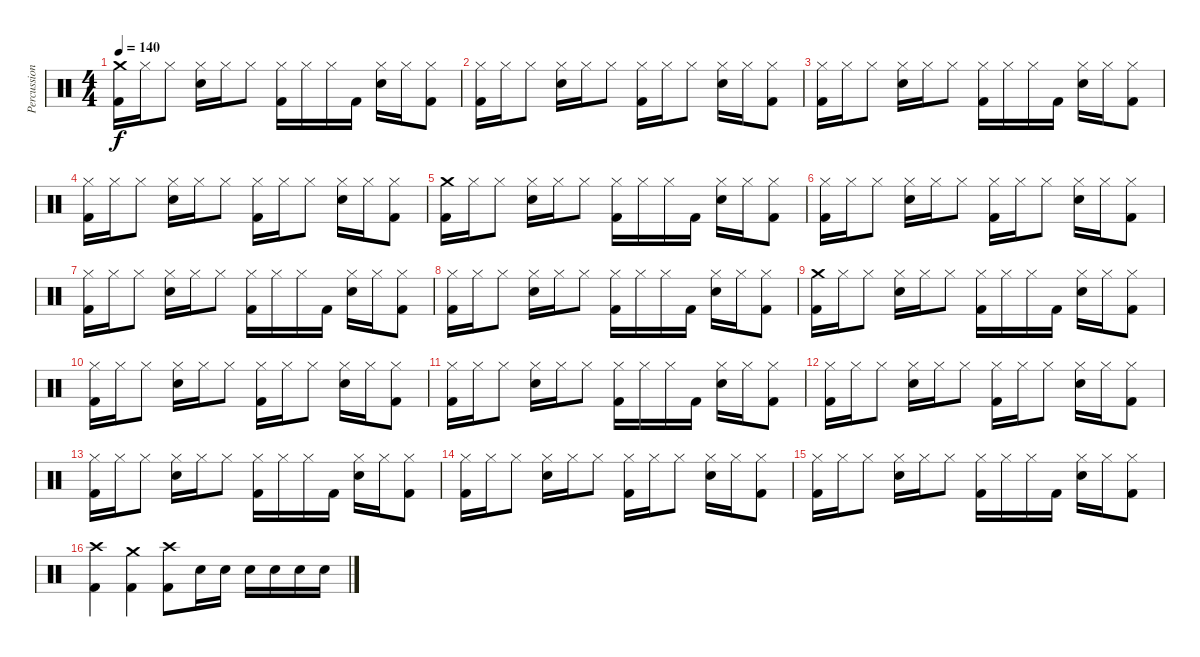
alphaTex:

\track ("Percussion" "Percussion") {instrument percussion}
\staff {score}
\articulation defaults
\ts (4 4)
\tempo 140
\clef neutral
\ks c
("Crash medium (hit)" "Kick (hit) 2").16{dy f} "Hi-Hat (closed)".16 "Hi-Hat (closed)".8 ("Hi-Hat (closed)" "Electric Snare (hit)").16 "Hi-Hat (closed)".16 "Hi-Hat (closed)".8 ("Hi-Hat (closed)" "Kick (hit) 2").16 "Hi-Hat (closed)".16 "Hi-Hat (closed)".16 "Kick (hit) 2".16 ("Hi-Hat (closed)" "Electric Snare (hit)").16 "Hi-Hat (closed)".16 ("Hi-Hat (closed)" "Kick (hit) 2").8 |
("Hi-Hat (closed)" "Kick (hit) 2").16 "Hi-Hat (closed)".16 "Hi-Hat (closed)".8 ("Hi-Hat (closed)" "Electric Snare (hit)").16 "Hi-Hat (closed)".16 "Hi-Hat (closed)".8 ("Hi-Hat (closed)" "Kick (hit) 2").16 "Hi-Hat (closed)".16 "Hi-Hat (closed)".8 ("Hi-Hat (closed)" "Electric Snare (hit)").16 "Hi-Hat (closed)".16 ("Hi-Hat (closed)" "Kick (hit) 2").8 |
("Hi-Hat (closed)" "Kick (hit) 2").16 "Hi-Hat (closed)".16 "Hi-Hat (closed)".8 ("Hi-Hat (closed)" "Electric Snare (hit)").16 "Hi-Hat (closed)".16 "Hi-Hat (closed)".8 ("Hi-Hat (closed)" "Kick (hit) 2").16 "Hi-Hat (closed)".16 "Hi-Hat (closed)".16 "Kick (hit) 2".16 ("Hi-Hat (closed)" "Electric Snare (hit)").16 "Hi-Hat (closed)".16 ("Hi-Hat (closed)" "Kick (hit) 2").8 |
("Hi-Hat (closed)" "Kick (hit) 2").16 "Hi-Hat (closed)".16 "Hi-Hat (closed)".8 ("Hi-Hat (closed)" "Electric Snare (hit)").16 "Hi-Hat (closed)".16 "Hi-Hat (closed)".8 ("Hi-Hat (closed)" "Kick (hit) 2").16 "Hi-Hat (closed)".16 "Hi-Hat (closed)".8 ("Hi-Hat (closed)" "Electric Snare (hit)").16 "Hi-Hat (closed)".16 ("Hi-Hat (closed)" "Kick (hit) 2").8 |
("Crash medium (hit)" "Kick (hit) 2").16 "Hi-Hat (closed)".16 "Hi-Hat (closed)".8 ("Hi-Hat (closed)" "Electric Snare (hit)").16 "Hi-Hat (closed)".16 "Hi-Hat (closed)".8 ("Hi-Hat (closed)" "Kick (hit) 2").16 "Hi-Hat (closed)".16 "Hi-Hat (closed)".16 "Kick (hit) 2".16 ("Hi-Hat (closed)" "Electric Snare (hit)").16 "Hi-Hat (closed)".16 ("Hi-Hat (closed)" "Kick (hit) 2").8 |
("Hi-Hat (closed)" "Kick (hit) 2").16 "Hi-Hat (closed)".16 "Hi-Hat (closed)".8 ("Hi-Hat (closed)" "Electric Snare (hit)").16 "Hi-Hat (closed)".16 "Hi-Hat (closed)".8 ("Hi-Hat (closed)" "Kick (hit) 2").16 "Hi-Hat (closed)".16 "Hi-Hat (closed)".8 ("Hi-Hat (closed)" "Electric Snare (hit)").16 "Hi-Hat (closed)".16 ("Hi-Hat (closed)" "Kick (hit) 2").8 |
("Hi-Hat (closed)" "Kick (hit) 2").16 "Hi-Hat (closed)".16 "Hi-Hat (closed)".8 ("Hi-Hat (closed)" "Electric Snare (hit)").16 "Hi-Hat (closed)".16 "Hi-Hat (closed)".8 ("Hi-Hat (closed)" "Kick (hit) 2").16 "Hi-Hat (closed)".16 "Hi-Hat (closed)".16 "Kick (hit) 2".16 ("Hi-Hat (closed)" "Electric Snare (hit)").16 "Hi-Hat (closed)".16 ("Hi-Hat (closed)" "Kick (hit) 2").8 |
("Hi-Hat (closed)" "Kick (hit) 2").16 "Hi-Hat (closed)".16 "Hi-Hat (closed)".8 ("Hi-Hat (closed)" "Electric Snare (hit)").16 "Hi-Hat (closed)".16 "Hi-Hat (closed)".8 ("Hi-Hat (closed)" "Kick (hit) 2").16 "Hi-Hat (closed)".16 "Hi-Hat (closed)".16 "Kick (hit) 2".16 ("Hi-Hat (closed)" "Electric Snare (hit)").16 "Hi-Hat (closed)".16 ("Hi-Hat (closed)" "Kick (hit) 2").8 |
("Crash medium (hit)" "Kick (hit) 2").16 "Hi-Hat (closed)".16 "Hi-Hat (closed)".8 ("Hi-Hat (closed)" "Electric Snare (hit)").16 "Hi-Hat (closed)".16 "Hi-Hat (closed)".8 ("Hi-Hat (closed)" "Kick (hit) 2").16 "Hi-Hat (closed)".16 "Hi-Hat (closed)".16 "Kick (hit) 2".16 ("Hi-Hat (closed)" "Electric Snare (hit)").16 "Hi-Hat (closed)".16 ("Hi-Hat (closed)" "Kick (hit) 2").8 |
("Hi-Hat (closed)" "Kick (hit) 2").16 "Hi-Hat (closed)".16 "Hi-Hat (closed)".8 ("Hi-Hat (closed)" "Electric Snare (hit)").16 "Hi-Hat (closed)".16 "Hi-Hat (closed)".8 ("Hi-Hat (closed)" "Kick (hit) 2").16 "Hi-Hat (closed)".16 "Hi-Hat (closed)".8 ("Hi-Hat (closed)" "Electric Snare (hit)").16 "Hi-Hat (closed)".16 ("Hi-Hat (closed)" "Kick (hit) 2").8 |
("Hi-Hat (closed)" "Kick (hit) 2").16 "Hi-Hat (closed)".16 "Hi-Hat (closed)".8 ("Hi-Hat (closed)" "Electric Snare (hit)").16 "Hi-Hat (closed)".16 "Hi-Hat (closed)".8 ("Hi-Hat (closed)" "Kick (hit) 2").16 "Hi-Hat (closed)".16 "Hi-Hat (closed)".16 "Kick (hit) 2".16 ("Hi-Hat (closed)" "Electric Snare (hit)").16 "Hi-Hat (closed)".16 ("Hi-Hat (closed)" "Kick (hit) 2").8 |
("Hi-Hat (closed)" "Kick (hit) 2").16 "Hi-Hat (closed)".16 "Hi-Hat (closed)".8 ("Hi-Hat (closed)" "Electric Snare (hit)").16 "Hi-Hat (closed)".16 "Hi-Hat (closed)".8 ("Hi-Hat (closed)" "Kick (hit) 2").16 "Hi-Hat (closed)".16 "Hi-Hat (closed)".8 ("Hi-Hat (closed)" "Electric Snare (hit)").16 "Hi-Hat (closed)".16 ("Hi-Hat (closed)" "Kick (hit) 2").8 |
("Hi-Hat (closed)" "Kick (hit) 2").16 "Hi-Hat (closed)".16 "Hi-Hat (closed)".8 ("Hi-Hat (closed)" "Electric Snare (hit)").16 "Hi-Hat (closed)".16 "Hi-Hat (closed)".8 ("Hi-Hat (closed)" "Kick (hit) 2").16 "Hi-Hat (closed)".16 "Hi-Hat (closed)".16 "Kick (hit) 2".16 ("Hi-Hat (closed)" "Electric Snare (hit)").16 "Hi-Hat (closed)".16 ("Hi-Hat (closed)" "Kick (hit) 2").8 |
("Hi-Hat (closed)" "Kick (hit) 2").16 "Hi-Hat (closed)".16 "Hi-Hat (closed)".8 ("Hi-Hat (closed)" "Electric Snare (hit)").16 "Hi-Hat (closed)".16 "Hi-Hat (closed)".8 ("Hi-Hat (closed)" "Kick (hit) 2").16 "Hi-Hat (closed)".16 "Hi-Hat (closed)".8 ("Hi-Hat (closed)" "Electric Snare (hit)").16 "Hi-Hat (closed)".16 ("Hi-Hat (closed)" "Kick (hit) 2").8 |
("Hi-Hat (closed)" "Kick (hit) 2").16 "Hi-Hat (closed)".16 "Hi-Hat (closed)".8 ("Hi-Hat (closed)" "Electric Snare (hit)").16 "Hi-Hat (closed)".16 "Hi-Hat (closed)".8 ("Hi-Hat (closed)" "Kick (hit) 2").16 "Hi-Hat (closed)".16 "Hi-Hat (closed)".16 "Kick (hit) 2".16 ("Hi-Hat (closed)" "Electric Snare (hit)").16 "Hi-Hat (closed)".16 ("Hi-Hat (closed)" "Kick (hit) 2").8 |
("Crash high (hit)" "Kick (hit) 2").4 ("Crash medium (hit)" "Kick (hit) 2").4 ("Crash high (hit)" "Kick (hit) 2").8 "Electric Snare (hit)".16 "Electric Snare (hit)".16 "Electric Snare (hit)".16 "Electric Snare (hit)".16 "Electric Snare (hit)".16 "Electric Snare (hit)".16
